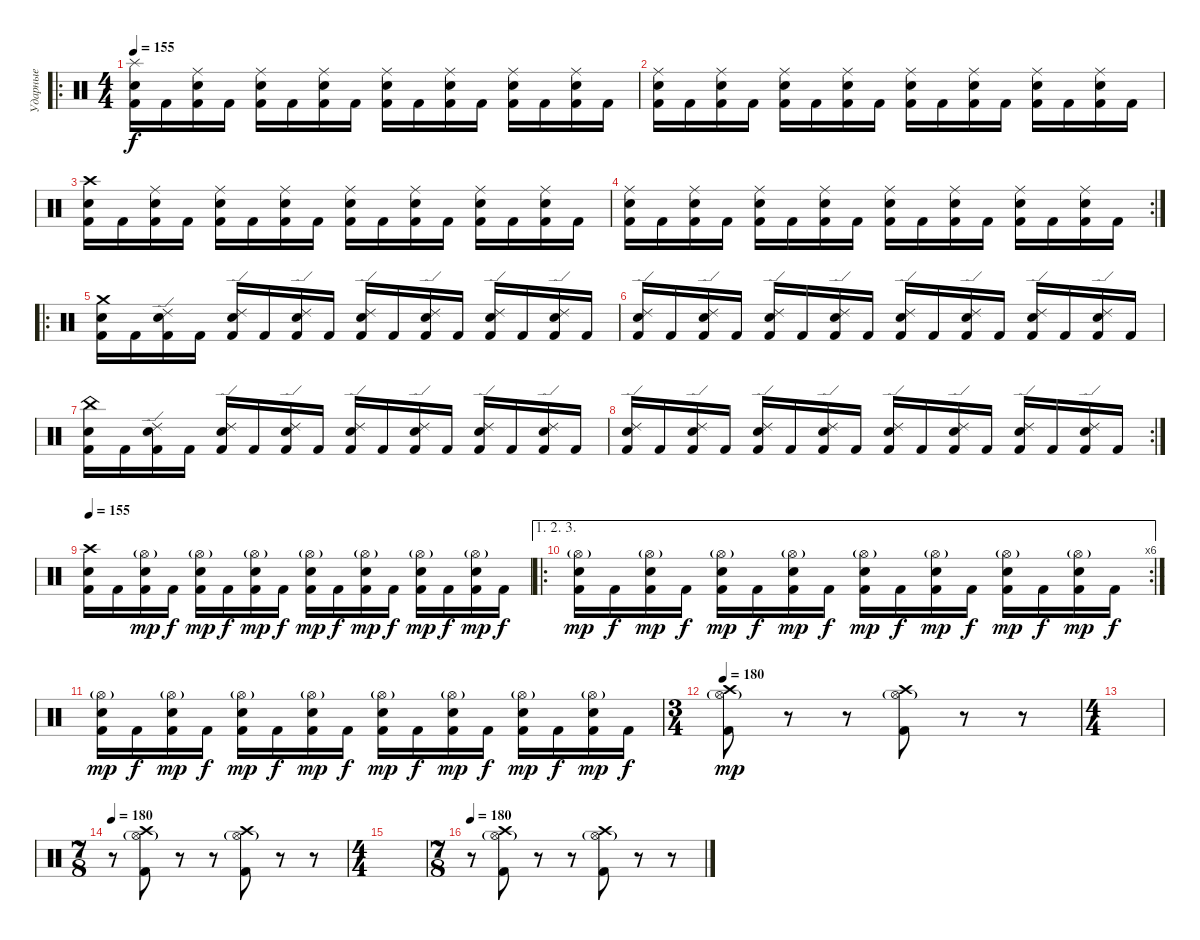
\track ("Ударные" "Ударные") {instrument percussion}
\staff {score}
\articulation defaults
\ro
\ts (4 4)
\tempo 155
\clef neutral
\ks c
("Electric Snare (hit)" "Splash (hit)" "Kick (hit) 2").16{dy f} "Kick (hit) 2".16 ("Electric Snare (hit)" "Ride (middle)" "Kick (hit) 2").16 "Kick (hit) 2".16 ("Electric Snare (hit)" "Ride (middle)" "Kick (hit) 2").16 "Kick (hit) 2".16 ("Electric Snare (hit)" "Ride (middle)" "Kick (hit) 2").16 "Kick (hit) 2".16 ("Electric Snare (hit)" "Ride (middle)" "Kick (hit) 2").16 "Kick (hit) 2".16 ("Electric Snare (hit)" "Ride (middle)" "Kick (hit) 2").16 "Kick (hit) 2".16 ("Electric Snare (hit)" "Ride (middle)" "Kick (hit) 2").16 "Kick (hit) 2".16 ("Electric Snare (hit)" "Ride (middle)" "Kick (hit) 2").16 "Kick (hit) 2".16 |
("Electric Snare (hit)" "Ride (middle)" "Kick (hit) 2").16 "Kick (hit) 2".16 ("Electric Snare (hit)" "Ride (middle)" "Kick (hit) 2").16 "Kick (hit) 2".16 ("Electric Snare (hit)" "Ride (middle)" "Kick (hit) 2").16 "Kick (hit) 2".16 ("Electric Snare (hit)" "Ride (middle)" "Kick (hit) 2").16 "Kick (hit) 2".16 ("Electric Snare (hit)" "Ride (middle)" "Kick (hit) 2").16 "Kick (hit) 2".16 ("Electric Snare (hit)" "Ride (middle)" "Kick (hit) 2").16 "Kick (hit) 2".16 ("Electric Snare (hit)" "Ride (middle)" "Kick (hit) 2").16 "Kick (hit) 2".16 ("Electric Snare (hit)" "Ride (middle)" "Kick (hit) 2").16 "Kick (hit) 2".16 |
("Electric Snare (hit)" "Crash high (hit)" "Kick (hit) 2").16 "Kick (hit) 2".16 ("Electric Snare (hit)" "Ride (middle)" "Kick (hit) 2").16 "Kick (hit) 2".16 ("Electric Snare (hit)" "Ride (middle)" "Kick (hit) 2").16 "Kick (hit) 2".16 ("Electric Snare (hit)" "Ride (middle)" "Kick (hit) 2").16 "Kick (hit) 2".16 ("Electric Snare (hit)" "Ride (middle)" "Kick (hit) 2").16 "Kick (hit) 2".16 ("Electric Snare (hit)" "Ride (middle)" "Kick (hit) 2").16 "Kick (hit) 2".16 ("Electric Snare (hit)" "Ride (middle)" "Kick (hit) 2").16 "Kick (hit) 2".16 ("Electric Snare (hit)" "Ride (middle)" "Kick (hit) 2").16 "Kick (hit) 2".16 |
\rc 2
("Electric Snare (hit)" "Ride (middle)" "Kick (hit) 2").16 "Kick (hit) 2".16 ("Electric Snare (hit)" "Ride (middle)" "Kick (hit) 2").16 "Kick (hit) 2".16 ("Electric Snare (hit)" "Ride (middle)" "Kick (hit) 2").16 "Kick (hit) 2".16 ("Electric Snare (hit)" "Ride (middle)" "Kick (hit) 2").16 "Kick (hit) 2".16 ("Electric Snare (hit)" "Ride (middle)" "Kick (hit) 2").16 "Kick (hit) 2".16 ("Electric Snare (hit)" "Ride (middle)" "Kick (hit) 2").16 "Kick (hit) 2".16 ("Electric Snare (hit)" "Ride (middle)" "Kick (hit) 2").16 "Kick (hit) 2".16 ("Electric Snare (hit)" "Ride (middle)" "Kick (hit) 2").16 "Kick (hit) 2".16 |
\ro
("Electric Snare (hit)" "Crash medium (hit)" "Kick (hit) 2").16 "Kick (hit) 2".16 ("Electric Snare (hit)" "Ride (edge) 2" "Kick (hit) 2").16 "Kick (hit) 2".16 ("Electric Snare (hit)" "Ride (edge) 2" "Kick (hit) 2").16 "Kick (hit) 2".16 ("Electric Snare (hit)" "Ride (edge) 2" "Kick (hit) 2").16 "Kick (hit) 2".16 ("Electric Snare (hit)" "Ride (edge) 2" "Kick (hit) 2").16 "Kick (hit) 2".16 ("Electric Snare (hit)" "Ride (edge) 2" "Kick (hit) 2").16 "Kick (hit) 2".16 ("Electric Snare (hit)" "Ride (edge) 2" "Kick (hit) 2").16 "Kick (hit) 2".16 ("Electric Snare (hit)" "Ride (edge) 2" "Kick (hit) 2").16 "Kick (hit) 2".16 |
("Electric Snare (hit)" "Ride (edge) 2" "Kick (hit) 2").16 "Kick (hit) 2".16 ("Electric Snare (hit)" "Ride (edge) 2" "Kick (hit) 2").16 "Kick (hit) 2".16 ("Electric Snare (hit)" "Ride (edge) 2" "Kick (hit) 2").16 "Kick (hit) 2".16 ("Electric Snare (hit)" "Ride (edge) 2" "Kick (hit) 2").16 "Kick (hit) 2".16 ("Electric Snare (hit)" "Ride (edge) 2" "Kick (hit) 2").16 "Kick (hit) 2".16 ("Electric Snare (hit)" "Ride (edge) 2" "Kick (hit) 2").16 "Kick (hit) 2".16 ("Electric Snare (hit)" "Ride (edge) 2" "Kick (hit) 2").16 "Kick (hit) 2".16 ("Electric Snare (hit)" "Ride (edge) 2" "Kick (hit) 2").16 "Kick (hit) 2".16 |
("Electric Snare (hit)" "China (hit)" "Kick (hit) 2").16 "Kick (hit) 2".16 ("Electric Snare (hit)" "Ride (edge) 2" "Kick (hit) 2").16 "Kick (hit) 2".16 ("Electric Snare (hit)" "Ride (edge) 2" "Kick (hit) 2").16 "Kick (hit) 2".16 ("Electric Snare (hit)" "Ride (edge) 2" "Kick (hit) 2").16 "Kick (hit) 2".16 ("Electric Snare (hit)" "Ride (edge) 2" "Kick (hit) 2").16 "Kick (hit) 2".16 ("Electric Snare (hit)" "Ride (edge) 2" "Kick (hit) 2").16 "Kick (hit) 2".16 ("Electric Snare (hit)" "Ride (edge) 2" "Kick (hit) 2").16 "Kick (hit) 2".16 ("Electric Snare (hit)" "Ride (edge) 2" "Kick (hit) 2").16 "Kick (hit) 2".16 |
\rc 2
("Electric Snare (hit)" "Ride (edge) 2" "Kick (hit) 2").16 "Kick (hit) 2".16 ("Electric Snare (hit)" "Ride (edge) 2" "Kick (hit) 2").16 "Kick (hit) 2".16 ("Electric Snare (hit)" "Ride (edge) 2" "Kick (hit) 2").16 "Kick (hit) 2".16 ("Electric Snare (hit)" "Ride (edge) 2" "Kick (hit) 2").16 "Kick (hit) 2".16 ("Electric Snare (hit)" "Ride (edge) 2" "Kick (hit) 2").16 "Kick (hit) 2".16 ("Electric Snare (hit)" "Ride (edge) 2" "Kick (hit) 2").16 "Kick (hit) 2".16 ("Electric Snare (hit)" "Ride (edge) 2" "Kick (hit) 2").16 "Kick (hit) 2".16 ("Electric Snare (hit)" "Ride (edge) 2" "Kick (hit) 2").16 "Kick (hit) 2".16 |
\tempo 155
("Electric Snare (hit)" "Crash high (hit)" "Kick (hit) 2").16 "Kick (hit) 2".16 ("Electric Snare (hit)" "Hi-Hat (open)"{g} "Kick (hit) 2").16{dy mp} "Kick (hit) 2".16{dy f} ("Electric Snare (hit)" "Hi-Hat (open)"{g} "Kick (hit) 2").16{dy mp} "Kick (hit) 2".16{dy f} ("Electric Snare (hit)" "Hi-Hat (open)"{g} "Kick (hit) 2").16{dy mp} "Kick (hit) 2".16{dy f} ("Electric Snare (hit)" "Hi-Hat (open)"{g} "Kick (hit) 2").16{dy mp} "Kick (hit) 2".16{dy f} ("Electric Snare (hit)" "Hi-Hat (open)"{g} "Kick (hit) 2").16{dy mp} "Kick (hit) 2".16{dy f} ("Electric Snare (hit)" "Hi-Hat (open)"{g} "Kick (hit) 2").16{dy mp} "Kick (hit) 2".16{dy f} ("Electric Snare (hit)" "Hi-Hat (open)"{g} "Kick (hit) 2").16{dy mp} "Kick (hit) 2".16{dy f} |
\ae (1 2 3)
\ro
\rc 6
("Electric Snare (hit)" "Hi-Hat (open)"{g} "Kick (hit) 2").16{dy mp} "Kick (hit) 2".16{dy f} ("Electric Snare (hit)" "Hi-Hat (open)"{g} "Kick (hit) 2").16{dy mp} "Kick (hit) 2".16{dy f} ("Electric Snare (hit)" "Hi-Hat (open)"{g} "Kick (hit) 2").16{dy mp} "Kick (hit) 2".16{dy f} ("Electric Snare (hit)" "Hi-Hat (open)"{g} "Kick (hit) 2").16{dy mp} "Kick (hit) 2".16{dy f} ("Electric Snare (hit)" "Hi-Hat (open)"{g} "Kick (hit) 2").16{dy mp} "Kick (hit) 2".16{dy f} ("Electric Snare (hit)" "Hi-Hat (open)"{g} "Kick (hit) 2").16{dy mp} "Kick (hit) 2".16{dy f} ("Electric Snare (hit)" "Hi-Hat (open)"{g} "Kick (hit) 2").16{dy mp} "Kick (hit) 2".16{dy f} ("Electric Snare (hit)" "Hi-Hat (open)"{g} "Kick (hit) 2").16{dy mp} "Kick (hit) 2".16{dy f} |
("Electric Snare (hit)" "Hi-Hat (open)"{g} "Kick (hit) 2").16{dy mp} "Kick (hit) 2".16{dy f} ("Electric Snare (hit)" "Hi-Hat (open)"{g} "Kick (hit) 2").16{dy mp} "Kick (hit) 2".16{dy f} ("Electric Snare (hit)" "Hi-Hat (open)"{g} "Kick (hit) 2").16{dy mp} "Kick (hit) 2".16{dy f} ("Electric Snare (hit)" "Hi-Hat (open)"{g} "Kick (hit) 2").16{dy mp} "Kick (hit) 2".16{dy f} ("Electric Snare (hit)" "Hi-Hat (open)"{g} "Kick (hit) 2").16{dy mp} "Kick (hit) 2".16{dy f} ("Electric Snare (hit)" "Hi-Hat (open)"{g} "Kick (hit) 2").16{dy mp} "Kick (hit) 2".16{dy f} ("Electric Snare (hit)" "Hi-Hat (open)"{g} "Kick (hit) 2").16{dy mp} "Kick (hit) 2".16{dy f} ("Electric Snare (hit)" "Hi-Hat (open)"{g} "Kick (hit) 2").16{dy mp} "Kick (hit) 2".16{dy f} |
\ts (3 4)
\tempo 180
("Crash high (hit)" "Hi-Hat (open)"{g} "Kick (hit) 2").8{dy mp} r.8 r.8 ("Crash high (hit)" "Hi-Hat (open)"{g} "Kick (hit) 2").8 r.8 r.8 |
\ts (4 4)
|
\ts (7 8)
\tempo 180
r.8 ("Crash high (hit)" "Hi-Hat (open)"{g} "Kick (hit) 2").8 r.8 r.8 ("Crash high (hit)" "Hi-Hat (open)"{g} "Kick (hit) 2").8 r.8 r.8 |
\ts (4 4)
|
\ts (7 8)
\tempo 180
r.8 ("Crash high (hit)" "Hi-Hat (open)"{g} "Kick (hit) 2").8 r.8 r.8 ("Crash high (hit)" "Hi-Hat (open)"{g} "Kick (hit) 2").8 r.8 r.8
